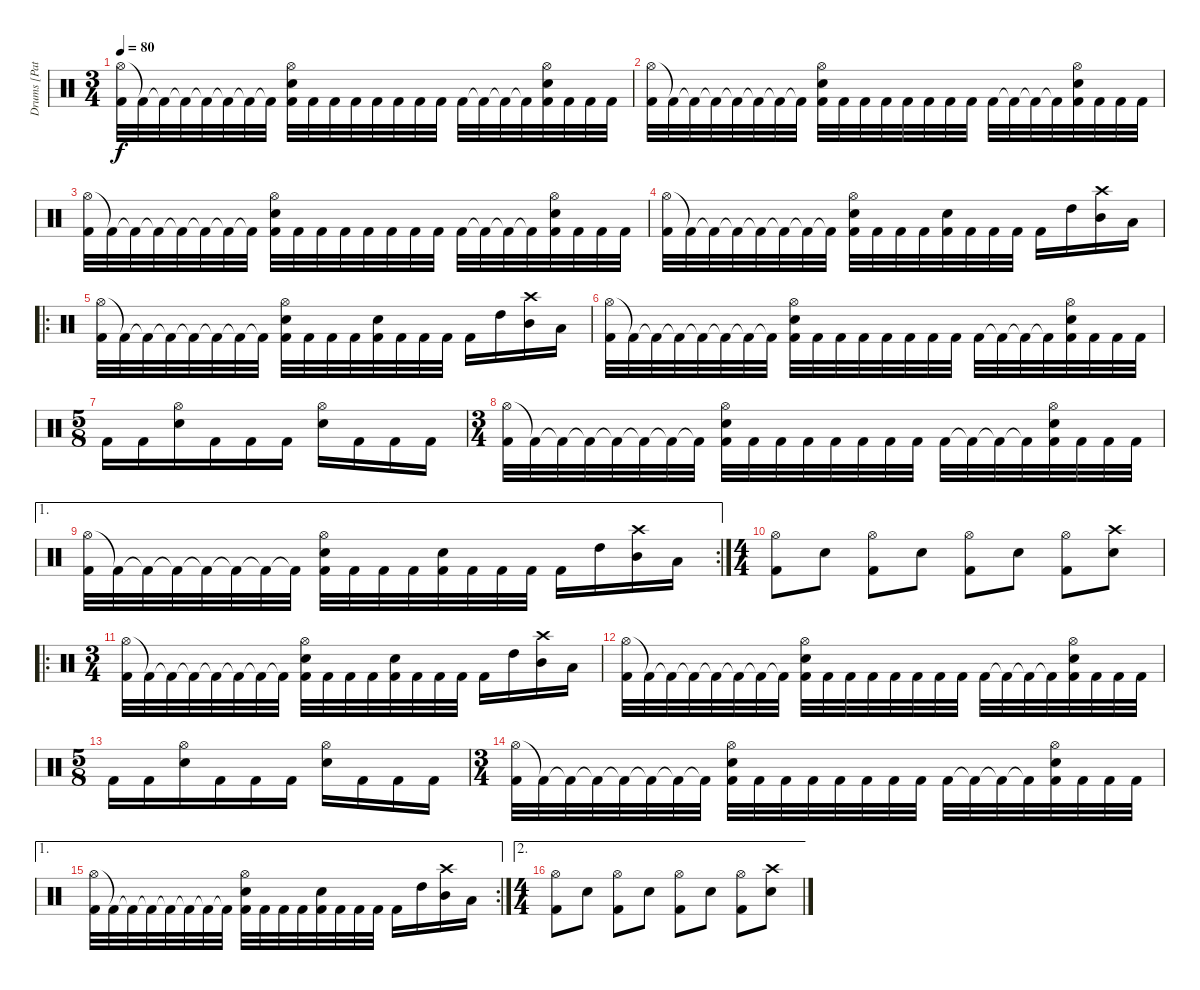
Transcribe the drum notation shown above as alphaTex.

\track ("Drums [Patrick Robert]" "Drums [Pat") {instrument percussion}
\staff {score}
\articulation defaults
\ts (3 4)
\tempo 80
\clef neutral
\ks c
("Hi-Hat (open)" "Kick (hit) 2").32{dy f} "Kick (hit) 2"{t}.32 "Kick (hit) 2"{t}.32 "Kick (hit) 2"{t}.32 "Kick (hit) 2"{t}.32 "Kick (hit) 2"{t}.32 "Kick (hit) 2"{t}.32 "Kick (hit) 2"{t}.32 ("Hi-Hat (open)" "Electric Snare (hit)" "Kick (hit) 2").32 "Kick (hit) 2".32 "Kick (hit) 2".32 "Kick (hit) 2".32 "Kick (hit) 2".32 "Kick (hit) 2".32 "Kick (hit) 2".32 "Kick (hit) 2".32 "Kick (hit) 2".32 "Kick (hit) 2"{t}.32 "Kick (hit) 2"{t}.32 "Kick (hit) 2"{t}.32 ("Hi-Hat (open)" "Electric Snare (hit)" "Kick (hit) 2").32 "Kick (hit) 2".32 "Kick (hit) 2".32 "Kick (hit) 2".32 |
("Hi-Hat (open)" "Kick (hit) 2").32 "Kick (hit) 2"{t}.32 "Kick (hit) 2"{t}.32 "Kick (hit) 2"{t}.32 "Kick (hit) 2"{t}.32 "Kick (hit) 2"{t}.32 "Kick (hit) 2"{t}.32 "Kick (hit) 2"{t}.32 ("Hi-Hat (open)" "Electric Snare (hit)" "Kick (hit) 2").32 "Kick (hit) 2".32 "Kick (hit) 2".32 "Kick (hit) 2".32 "Kick (hit) 2".32 "Kick (hit) 2".32 "Kick (hit) 2".32 "Kick (hit) 2".32 "Kick (hit) 2".32 "Kick (hit) 2"{t}.32 "Kick (hit) 2"{t}.32 "Kick (hit) 2"{t}.32 ("Hi-Hat (open)" "Electric Snare (hit)" "Kick (hit) 2").32 "Kick (hit) 2".32 "Kick (hit) 2".32 "Kick (hit) 2".32 |
("Hi-Hat (open)" "Kick (hit) 2").32 "Kick (hit) 2"{t}.32 "Kick (hit) 2"{t}.32 "Kick (hit) 2"{t}.32 "Kick (hit) 2"{t}.32 "Kick (hit) 2"{t}.32 "Kick (hit) 2"{t}.32 "Kick (hit) 2"{t}.32 ("Hi-Hat (open)" "Electric Snare (hit)" "Kick (hit) 2").32 "Kick (hit) 2".32 "Kick (hit) 2".32 "Kick (hit) 2".32 "Kick (hit) 2".32 "Kick (hit) 2".32 "Kick (hit) 2".32 "Kick (hit) 2".32 "Kick (hit) 2".32 "Kick (hit) 2"{t}.32 "Kick (hit) 2"{t}.32 "Kick (hit) 2"{t}.32 ("Hi-Hat (open)" "Electric Snare (hit)" "Kick (hit) 2").32 "Kick (hit) 2".32 "Kick (hit) 2".32 "Kick (hit) 2".32 |
("Hi-Hat (open)" "Kick (hit) 2").32 "Kick (hit) 2"{t}.32 "Kick (hit) 2"{t}.32 "Kick (hit) 2"{t}.32 "Kick (hit) 2"{t}.32 "Kick (hit) 2"{t}.32 "Kick (hit) 2"{t}.32 "Kick (hit) 2"{t}.32 ("Hi-Hat (open)" "Electric Snare (hit)" "Kick (hit) 2").32 "Kick (hit) 2".32 "Kick (hit) 2".32 "Kick (hit) 2".32 ("Electric Snare (hit)" "Kick (hit) 2").32 "Kick (hit) 2".32 "Kick (hit) 2".32 "Kick (hit) 2".32 "Kick (hit) 2".16 "High Tom (hit)".16 ("Crash high (hit)" "Mid Tom (hit)").16 "Low Tom (hit)".16 |
\ro
("Hi-Hat (open)" "Kick (hit) 2").32 "Kick (hit) 2"{t}.32 "Kick (hit) 2"{t}.32 "Kick (hit) 2"{t}.32 "Kick (hit) 2"{t}.32 "Kick (hit) 2"{t}.32 "Kick (hit) 2"{t}.32 "Kick (hit) 2"{t}.32 ("Hi-Hat (open)" "Electric Snare (hit)" "Kick (hit) 2").32 "Kick (hit) 2".32 "Kick (hit) 2".32 "Kick (hit) 2".32 ("Electric Snare (hit)" "Kick (hit) 2").32 "Kick (hit) 2".32 "Kick (hit) 2".32 "Kick (hit) 2".32 "Kick (hit) 2".16 "High Tom (hit)".16 ("Crash high (hit)" "Mid Tom (hit)").16 "Low Tom (hit)".16 |
("Hi-Hat (open)" "Kick (hit) 2").32 "Kick (hit) 2"{t}.32 "Kick (hit) 2"{t}.32 "Kick (hit) 2"{t}.32 "Kick (hit) 2"{t}.32 "Kick (hit) 2"{t}.32 "Kick (hit) 2"{t}.32 "Kick (hit) 2"{t}.32 ("Hi-Hat (open)" "Electric Snare (hit)" "Kick (hit) 2").32 "Kick (hit) 2".32 "Kick (hit) 2".32 "Kick (hit) 2".32 "Kick (hit) 2".32 "Kick (hit) 2".32 "Kick (hit) 2".32 "Kick (hit) 2".32 "Kick (hit) 2".32 "Kick (hit) 2"{t}.32 "Kick (hit) 2"{t}.32 "Kick (hit) 2"{t}.32 ("Hi-Hat (open)" "Electric Snare (hit)" "Kick (hit) 2").32 "Kick (hit) 2".32 "Kick (hit) 2".32 "Kick (hit) 2".32 |
\ts (5 8)
"Kick (hit) 2".16 "Kick (hit) 2".16 ("Hi-Hat (open)" "Electric Snare (hit)").16 "Kick (hit) 2".16 "Kick (hit) 2".16 "Kick (hit) 2".16 ("Hi-Hat (open)" "Electric Snare (hit)").16 "Kick (hit) 2".16 "Kick (hit) 2".16 "Kick (hit) 2".16 |
\ts (3 4)
("Hi-Hat (open)" "Kick (hit) 2").32 "Kick (hit) 2"{t}.32 "Kick (hit) 2"{t}.32 "Kick (hit) 2"{t}.32 "Kick (hit) 2"{t}.32 "Kick (hit) 2"{t}.32 "Kick (hit) 2"{t}.32 "Kick (hit) 2"{t}.32 ("Hi-Hat (open)" "Electric Snare (hit)" "Kick (hit) 2").32 "Kick (hit) 2".32 "Kick (hit) 2".32 "Kick (hit) 2".32 "Kick (hit) 2".32 "Kick (hit) 2".32 "Kick (hit) 2".32 "Kick (hit) 2".32 "Kick (hit) 2".32 "Kick (hit) 2"{t}.32 "Kick (hit) 2"{t}.32 "Kick (hit) 2"{t}.32 ("Hi-Hat (open)" "Electric Snare (hit)" "Kick (hit) 2").32 "Kick (hit) 2".32 "Kick (hit) 2".32 "Kick (hit) 2".32 |
\ae 1
\rc 2
("Hi-Hat (open)" "Kick (hit) 2").32 "Kick (hit) 2"{t}.32 "Kick (hit) 2"{t}.32 "Kick (hit) 2"{t}.32 "Kick (hit) 2"{t}.32 "Kick (hit) 2"{t}.32 "Kick (hit) 2"{t}.32 "Kick (hit) 2"{t}.32 ("Hi-Hat (open)" "Electric Snare (hit)" "Kick (hit) 2").32 "Kick (hit) 2".32 "Kick (hit) 2".32 "Kick (hit) 2".32 ("Electric Snare (hit)" "Kick (hit) 2").32 "Kick (hit) 2".32 "Kick (hit) 2".32 "Kick (hit) 2".32 "Kick (hit) 2".16 "High Tom (hit)".16 ("Crash high (hit)" "Mid Tom (hit)").16 "Low Tom (hit)".16 |
\ts (4 4)
("Hi-Hat (open)" "Kick (hit) 2").8 "Electric Snare (hit)".8 ("Hi-Hat (open)" "Kick (hit) 2").8 "Electric Snare (hit)".8 ("Hi-Hat (open)" "Kick (hit) 2").8 "Electric Snare (hit)".8 ("Hi-Hat (open)" "Kick (hit) 2").8 ("Crash high (hit)" "Electric Snare (hit)").8 |
\ro
\ts (3 4)
("Hi-Hat (open)" "Kick (hit) 2").32 "Kick (hit) 2"{t}.32 "Kick (hit) 2"{t}.32 "Kick (hit) 2"{t}.32 "Kick (hit) 2"{t}.32 "Kick (hit) 2"{t}.32 "Kick (hit) 2"{t}.32 "Kick (hit) 2"{t}.32 ("Hi-Hat (open)" "Electric Snare (hit)" "Kick (hit) 2").32 "Kick (hit) 2".32 "Kick (hit) 2".32 "Kick (hit) 2".32 ("Electric Snare (hit)" "Kick (hit) 2").32 "Kick (hit) 2".32 "Kick (hit) 2".32 "Kick (hit) 2".32 "Kick (hit) 2".16 "High Tom (hit)".16 ("Crash high (hit)" "Mid Tom (hit)").16 "Low Tom (hit)".16 |
("Hi-Hat (open)" "Kick (hit) 2").32 "Kick (hit) 2"{t}.32 "Kick (hit) 2"{t}.32 "Kick (hit) 2"{t}.32 "Kick (hit) 2"{t}.32 "Kick (hit) 2"{t}.32 "Kick (hit) 2"{t}.32 "Kick (hit) 2"{t}.32 ("Hi-Hat (open)" "Electric Snare (hit)" "Kick (hit) 2").32 "Kick (hit) 2".32 "Kick (hit) 2".32 "Kick (hit) 2".32 "Kick (hit) 2".32 "Kick (hit) 2".32 "Kick (hit) 2".32 "Kick (hit) 2".32 "Kick (hit) 2".32 "Kick (hit) 2"{t}.32 "Kick (hit) 2"{t}.32 "Kick (hit) 2"{t}.32 ("Hi-Hat (open)" "Electric Snare (hit)" "Kick (hit) 2").32 "Kick (hit) 2".32 "Kick (hit) 2".32 "Kick (hit) 2".32 |
\ts (5 8)
"Kick (hit) 2".16 "Kick (hit) 2".16 ("Hi-Hat (open)" "Electric Snare (hit)").16 "Kick (hit) 2".16 "Kick (hit) 2".16 "Kick (hit) 2".16 ("Hi-Hat (open)" "Electric Snare (hit)").16 "Kick (hit) 2".16 "Kick (hit) 2".16 "Kick (hit) 2".16 |
\ts (3 4)
("Hi-Hat (open)" "Kick (hit) 2").32 "Kick (hit) 2"{t}.32 "Kick (hit) 2"{t}.32 "Kick (hit) 2"{t}.32 "Kick (hit) 2"{t}.32 "Kick (hit) 2"{t}.32 "Kick (hit) 2"{t}.32 "Kick (hit) 2"{t}.32 ("Hi-Hat (open)" "Electric Snare (hit)" "Kick (hit) 2").32 "Kick (hit) 2".32 "Kick (hit) 2".32 "Kick (hit) 2".32 "Kick (hit) 2".32 "Kick (hit) 2".32 "Kick (hit) 2".32 "Kick (hit) 2".32 "Kick (hit) 2".32 "Kick (hit) 2"{t}.32 "Kick (hit) 2"{t}.32 "Kick (hit) 2"{t}.32 ("Hi-Hat (open)" "Electric Snare (hit)" "Kick (hit) 2").32 "Kick (hit) 2".32 "Kick (hit) 2".32 "Kick (hit) 2".32 |
\ae 1
\rc 2
("Hi-Hat (open)" "Kick (hit) 2").32 "Kick (hit) 2"{t}.32 "Kick (hit) 2"{t}.32 "Kick (hit) 2"{t}.32 "Kick (hit) 2"{t}.32 "Kick (hit) 2"{t}.32 "Kick (hit) 2"{t}.32 "Kick (hit) 2"{t}.32 ("Hi-Hat (open)" "Electric Snare (hit)" "Kick (hit) 2").32 "Kick (hit) 2".32 "Kick (hit) 2".32 "Kick (hit) 2".32 ("Electric Snare (hit)" "Kick (hit) 2").32 "Kick (hit) 2".32 "Kick (hit) 2".32 "Kick (hit) 2".32 "Kick (hit) 2".16 "High Tom (hit)".16 ("Crash high (hit)" "Mid Tom (hit)").16 "Low Tom (hit)".16 |
\ae 2
\ts (4 4)
("Hi-Hat (open)" "Kick (hit) 2").8 "Electric Snare (hit)".8 ("Hi-Hat (open)" "Kick (hit) 2").8 "Electric Snare (hit)".8 ("Hi-Hat (open)" "Kick (hit) 2").8 "Electric Snare (hit)".8 ("Hi-Hat (open)" "Kick (hit) 2").8 ("Crash high (hit)" "Electric Snare (hit)").8
